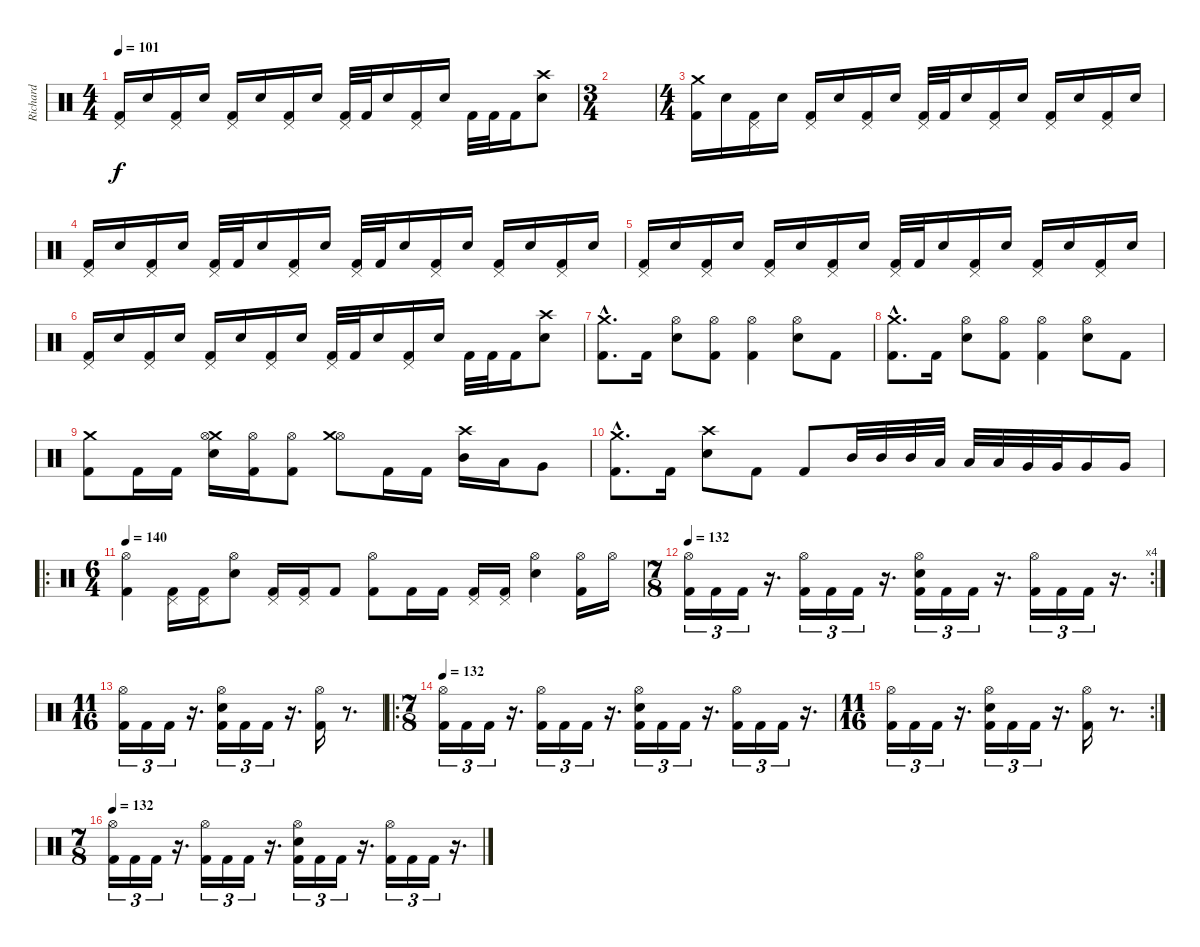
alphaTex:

\track ("Richard" "Richard") {instrument percussion}
\staff {score}
\articulation defaults
\ts (4 4)
\tempo 101
\clef neutral
\ks c
("Pedal Hi-Hat (hit)" "Kick (hit) 2").16{dy f} "Electric Snare (hit)".16 ("Pedal Hi-Hat (hit)" "Kick (hit) 2").16 "Electric Snare (hit)".16 ("Pedal Hi-Hat (hit)" "Kick (hit) 2").16 "Electric Snare (hit)".16 ("Pedal Hi-Hat (hit)" "Kick (hit) 2").16 "Electric Snare (hit)".16 ("Pedal Hi-Hat (hit)" "Kick (hit) 2").32 "Kick (hit) 2".32 "Electric Snare (hit)".16 ("Pedal Hi-Hat (hit)" "Kick (hit) 2").16 "Electric Snare (hit)".16 "Kick (hit) 2".32 "Kick (hit) 2".32 "Kick (hit) 2".16 ("Crash high (hit)" "Electric Snare (hit)").8 |
\ts (3 4)
|
\ts (4 4)
("Crash medium (hit)" "Kick (hit) 2").16 "Electric Snare (hit)".16 ("Pedal Hi-Hat (hit)" "Kick (hit) 2").16 "Electric Snare (hit)".16 ("Pedal Hi-Hat (hit)" "Kick (hit) 2").16 "Electric Snare (hit)".16 ("Pedal Hi-Hat (hit)" "Kick (hit) 2").16 "Electric Snare (hit)".16 ("Pedal Hi-Hat (hit)" "Kick (hit) 2").32 "Kick (hit) 2".32 "Electric Snare (hit)".16 ("Pedal Hi-Hat (hit)" "Kick (hit) 2").16 "Electric Snare (hit)".16 ("Pedal Hi-Hat (hit)" "Kick (hit) 2").16 "Electric Snare (hit)".16 ("Pedal Hi-Hat (hit)" "Kick (hit) 2").16 "Electric Snare (hit)".16 |
("Pedal Hi-Hat (hit)" "Kick (hit) 2").16 "Electric Snare (hit)".16 ("Pedal Hi-Hat (hit)" "Kick (hit) 2").16 "Electric Snare (hit)".16 ("Pedal Hi-Hat (hit)" "Kick (hit) 2").32 "Kick (hit) 2".32 "Electric Snare (hit)".16 ("Pedal Hi-Hat (hit)" "Kick (hit) 2").16 "Electric Snare (hit)".16 ("Pedal Hi-Hat (hit)" "Kick (hit) 2").32 "Kick (hit) 2".32 "Electric Snare (hit)".16 ("Pedal Hi-Hat (hit)" "Kick (hit) 2").16 "Electric Snare (hit)".16 ("Pedal Hi-Hat (hit)" "Kick (hit) 2").16 "Electric Snare (hit)".16 ("Pedal Hi-Hat (hit)" "Kick (hit) 2").16 "Electric Snare (hit)".16 |
("Pedal Hi-Hat (hit)" "Kick (hit) 2").16 "Electric Snare (hit)".16 ("Pedal Hi-Hat (hit)" "Kick (hit) 2").16 "Electric Snare (hit)".16 ("Pedal Hi-Hat (hit)" "Kick (hit) 2").16 "Electric Snare (hit)".16 ("Pedal Hi-Hat (hit)" "Kick (hit) 2").16 "Electric Snare (hit)".16 ("Pedal Hi-Hat (hit)" "Kick (hit) 2").32 "Kick (hit) 2".32 "Electric Snare (hit)".16 ("Pedal Hi-Hat (hit)" "Kick (hit) 2").16 "Electric Snare (hit)".16 ("Pedal Hi-Hat (hit)" "Kick (hit) 2").16 "Electric Snare (hit)".16 ("Pedal Hi-Hat (hit)" "Kick (hit) 2").16 "Electric Snare (hit)".16 |
("Pedal Hi-Hat (hit)" "Kick (hit) 2").16 "Electric Snare (hit)".16 ("Pedal Hi-Hat (hit)" "Kick (hit) 2").16 "Electric Snare (hit)".16 ("Pedal Hi-Hat (hit)" "Kick (hit) 2").16 "Electric Snare (hit)".16 ("Pedal Hi-Hat (hit)" "Kick (hit) 2").16 "Electric Snare (hit)".16 ("Pedal Hi-Hat (hit)" "Kick (hit) 2").32 "Kick (hit) 2".32 "Electric Snare (hit)".16 ("Pedal Hi-Hat (hit)" "Kick (hit) 2").16 "Electric Snare (hit)".16 "Kick (hit) 2".32 "Kick (hit) 2".32 "Kick (hit) 2".16 ("Crash high (hit)" "Electric Snare (hit)").8 |
("Crash medium (hit)"{hac} "Kick (hit) 2"{hac}).8{d} "Kick (hit) 2".16 ("Hi-Hat (open)" "Electric Snare (hit)").8 ("Hi-Hat (open)" "Kick (hit) 2").8 ("Hi-Hat (open)" "Kick (hit) 2").4 ("Hi-Hat (open)" "Electric Snare (hit)").8 "Kick (hit) 2".8 |
("Crash medium (hit)"{hac} "Kick (hit) 2"{hac}).8{d} "Kick (hit) 2".16 ("Hi-Hat (open)" "Electric Snare (hit)").8 ("Hi-Hat (open)" "Kick (hit) 2").8 ("Hi-Hat (open)" "Kick (hit) 2").4 ("Hi-Hat (open)" "Electric Snare (hit)").8 "Kick (hit) 2".8 |
("Crash medium (hit)" "Kick (hit) 2").8 "Kick (hit) 2".16 "Kick (hit) 2".16 ("Crash medium (hit)" "Hi-Hat (open)" "Electric Snare (hit)").16 ("Hi-Hat (open)" "Kick (hit) 2").16 ("Hi-Hat (open)" "Kick (hit) 2").8 ("Hi-Hat (open)" "Crash medium (hit)").8 "Kick (hit) 2".16 "Kick (hit) 2".16 ("Crash high (hit)" "Mid Tom (hit)").16 "Low Tom (hit)".16 "Very Low Tom (hit)".8 |
("Crash medium (hit)"{hac} "Kick (hit) 2"{hac}).8{d} "Kick (hit) 2".16 ("Crash high (hit)" "Electric Snare (hit)").8 "Kick (hit) 2".8 "Kick (hit) 2".8 "Mid Tom (hit)".32 "Mid Tom (hit)".32 "Mid Tom (hit)".32 "Low Tom (hit)".32 "Low Tom (hit)".32 "Low Tom (hit)".32 "Very Low Tom (hit)".32 "Very Low Tom (hit)".32 "Very Low Tom (hit)".16 "Very Low Tom (hit)".16 |
\ro
\ts (6 4)
\tempo 140
("Hi-Hat (open)" "Kick (hit) 2").4 ("Pedal Hi-Hat (hit)" "Kick (hit) 2").16 ("Pedal Hi-Hat (hit)" "Kick (hit) 2").16 ("Hi-Hat (open)" "Electric Snare (hit)").8 ("Pedal Hi-Hat (hit)" "Kick (hit) 2").16 ("Pedal Hi-Hat (hit)" "Kick (hit) 2").16 "Kick (hit) 2".8 ("Hi-Hat (open)" "Kick (hit) 2").8 "Kick (hit) 2".16 "Kick (hit) 2".16 ("Pedal Hi-Hat (hit)" "Kick (hit) 2").16 ("Pedal Hi-Hat (hit)" "Kick (hit) 2").16 ("Hi-Hat (open)" "Electric Snare (hit)").4 ("Hi-Hat (open)" "Kick (hit) 2").16 "Hi-Hat (open)".16 |
\rc 4
\ts (7 8)
\tempo 132
("Hi-Hat (open)" "Kick (hit) 2").16{tu (3 2)} "Kick (hit) 2".16{tu (3 2)} "Kick (hit) 2".16{tu (3 2)} r.16{d} ("Hi-Hat (open)" "Kick (hit) 2").16{tu (3 2)} "Kick (hit) 2".16{tu (3 2)} "Kick (hit) 2".16{tu (3 2)} r.16{d} ("Hi-Hat (open)" "Electric Snare (hit)" "Kick (hit) 2").16{tu (3 2)} "Kick (hit) 2".16{tu (3 2)} "Kick (hit) 2".16{tu (3 2)} r.16{d} ("Hi-Hat (open)" "Kick (hit) 2").16{tu (3 2)} "Kick (hit) 2".16{tu (3 2)} "Kick (hit) 2".16{tu (3 2)} r.16{d} |
\ts (11 16)
("Hi-Hat (open)" "Kick (hit) 2").16{tu (3 2)} "Kick (hit) 2".16{tu (3 2)} "Kick (hit) 2".16{tu (3 2)} r.16{d} ("Electric Snare (hit)" "Hi-Hat (open)" "Kick (hit) 2").16{tu (3 2)} "Kick (hit) 2".16{tu (3 2)} "Kick (hit) 2".16{tu (3 2)} r.16{d} ("Hi-Hat (open)" "Kick (hit) 2").16 r.8{d} |
\ro
\ts (7 8)
\tempo 132
("Hi-Hat (open)" "Kick (hit) 2").16{tu (3 2)} "Kick (hit) 2".16{tu (3 2)} "Kick (hit) 2".16{tu (3 2)} r.16{d} ("Hi-Hat (open)" "Kick (hit) 2").16{tu (3 2)} "Kick (hit) 2".16{tu (3 2)} "Kick (hit) 2".16{tu (3 2)} r.16{d} ("Hi-Hat (open)" "Electric Snare (hit)" "Kick (hit) 2").16{tu (3 2)} "Kick (hit) 2".16{tu (3 2)} "Kick (hit) 2".16{tu (3 2)} r.16{d} ("Hi-Hat (open)" "Kick (hit) 2").16{tu (3 2)} "Kick (hit) 2".16{tu (3 2)} "Kick (hit) 2".16{tu (3 2)} r.16{d} |
\rc 2
\ts (11 16)
("Hi-Hat (open)" "Kick (hit) 2").16{tu (3 2)} "Kick (hit) 2".16{tu (3 2)} "Kick (hit) 2".16{tu (3 2)} r.16{d} ("Electric Snare (hit)" "Hi-Hat (open)" "Kick (hit) 2").16{tu (3 2)} "Kick (hit) 2".16{tu (3 2)} "Kick (hit) 2".16{tu (3 2)} r.16{d} ("Hi-Hat (open)" "Kick (hit) 2").16 r.8{d} |
\ts (7 8)
\tempo 132
("Hi-Hat (open)" "Kick (hit) 2").16{tu (3 2)} "Kick (hit) 2".16{tu (3 2)} "Kick (hit) 2".16{tu (3 2)} r.16{d} ("Hi-Hat (open)" "Kick (hit) 2").16{tu (3 2)} "Kick (hit) 2".16{tu (3 2)} "Kick (hit) 2".16{tu (3 2)} r.16{d} ("Hi-Hat (open)" "Electric Snare (hit)" "Kick (hit) 2").16{tu (3 2)} "Kick (hit) 2".16{tu (3 2)} "Kick (hit) 2".16{tu (3 2)} r.16{d} ("Hi-Hat (open)" "Kick (hit) 2").16{tu (3 2)} "Kick (hit) 2".16{tu (3 2)} "Kick (hit) 2".16{tu (3 2)} r.16{d}
